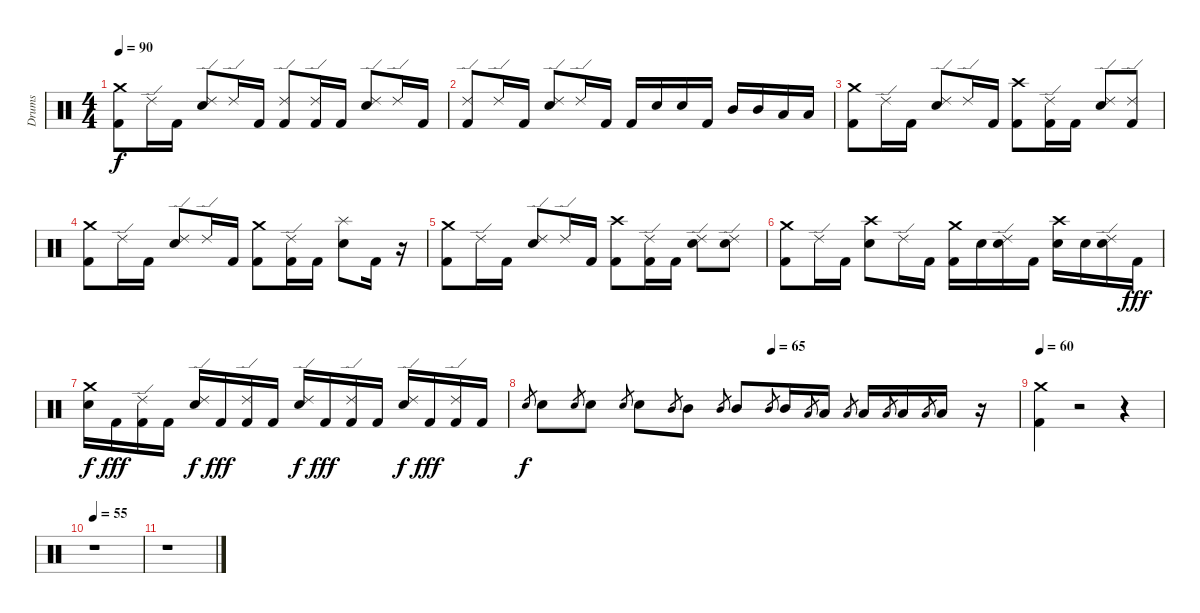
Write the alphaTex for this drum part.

\track ("Drums" "Drums") {instrument percussion}
\staff {score}
\articulation defaults
\ts (4 4)
\tempo 90
\clef neutral
\ks c
("Crash medium (hit)" "Kick (hit) 2").8{dy f} "Ride (edge) 2".16 "Kick (hit) 2".16 ("Ride (edge) 2" "Electric Snare (hit)").8 "Ride (edge) 2".16 "Kick (hit) 2".16 ("Ride (edge) 2" "Kick (hit) 2").8 ("Ride (edge) 2" "Kick (hit) 2").16 "Kick (hit) 2".16 ("Ride (edge) 2" "Electric Snare (hit)").8 "Ride (edge) 2".16 "Kick (hit) 2".16 |
("Ride (edge) 2" "Kick (hit) 2").8 "Ride (edge) 2".16 "Kick (hit) 2".16 ("Ride (edge) 2" "Electric Snare (hit)").8 "Ride (edge) 2".16 "Kick (hit) 2".16 "Kick (hit) 2".16 "Electric Snare (hit)".16 "Electric Snare (hit)".16 "Kick (hit) 2".16 "Mid Tom (hit)".16 "Mid Tom (hit)".16 "Low Tom (hit)".16 "Low Tom (hit)".16 |
("Crash medium (hit)" "Kick (hit) 2").8 "Ride (edge) 2".16 "Kick (hit) 2".16 ("Ride (edge) 2" "Electric Snare (hit)").8 "Ride (edge) 2".16 "Kick (hit) 2".16 ("Crash high (hit)" "Kick (hit) 2").8 ("Ride (edge) 2" "Kick (hit) 2").16 "Kick (hit) 2".16 ("Ride (edge) 2" "Electric Snare (hit)").8 ("Ride (edge) 2" "Kick (hit) 2").8 |
("Crash medium (hit)" "Kick (hit) 2").8 "Ride (edge) 2".16 "Kick (hit) 2".16 ("Ride (edge) 2" "Electric Snare (hit)").8 "Ride (edge) 2".16 "Kick (hit) 2".16 ("Crash medium (hit)" "Kick (hit) 2").8 ("Ride (edge) 2" "Kick (hit) 2").16 "Kick (hit) 2".16 ("Splash (hit)" "Electric Snare (hit)").8 "Kick (hit) 2".16 r.16 |
("Crash medium (hit)" "Kick (hit) 2").8 "Ride (edge) 2".16 "Kick (hit) 2".16 ("Ride (edge) 2" "Electric Snare (hit)").8 "Ride (edge) 2".16 "Kick (hit) 2".16 ("Crash high (hit)" "Kick (hit) 2").8 ("Ride (edge) 2" "Kick (hit) 2").16 "Kick (hit) 2".16 ("Ride (edge) 2" "Electric Snare (hit)").8 ("Ride (edge) 2" "Electric Snare (hit)").8 |
("Crash medium (hit)" "Kick (hit) 2").8 "Ride (edge) 2".16 "Kick (hit) 2".16 ("Crash high (hit)" "Electric Snare (hit)").8 "Ride (edge) 2".16 "Kick (hit) 2".16 ("Crash medium (hit)" "Kick (hit) 2").16 "Electric Snare (hit)".16 ("Ride (edge) 2" "Electric Snare (hit)").16 "Kick (hit) 2".16 ("Crash high (hit)" "Electric Snare (hit)").16 "Electric Snare (hit)".16 ("Ride (edge) 2" "Electric Snare (hit)").16 "Kick (hit) 2".16{dy fff} |
("Crash medium (hit)" "Electric Snare (hit)").16{dy f} "Kick (hit) 2".16{dy fff} ("Ride (edge) 2" "Kick (hit) 2").16 "Kick (hit) 2".16 ("Ride (edge) 2" "Electric Snare (hit)").16{dy f} "Kick (hit) 2".16{dy fff} ("Ride (edge) 2" "Kick (hit) 2").16 "Kick (hit) 2".16 ("Ride (edge) 2" "Electric Snare (hit)").16{dy f} "Kick (hit) 2".16{dy fff} ("Ride (edge) 2" "Kick (hit) 2").16 "Kick (hit) 2".16 ("Ride (edge) 2" "Electric Snare (hit)").16{dy f} "Kick (hit) 2".16{dy fff} ("Ride (edge) 2" "Kick (hit) 2").16 "Kick (hit) 2".16 |
\tempo (65 0.5)
"Electric Snare (hit)".8{gr dy f} "Electric Snare (hit)".8 "Electric Snare (hit)".8{gr} "Electric Snare (hit)".8 "Electric Snare (hit)".8{gr} "Electric Snare (hit)".8 "Mid Tom (hit)".8{gr} "Mid Tom (hit)".8 "Mid Tom (hit)".8{gr} "Mid Tom (hit)".8 "Mid Tom (hit)".8{gr} "Mid Tom (hit)".16 "Low Tom (hit)".8{gr} "Low Tom (hit)".16 "Low Tom (hit)".8{gr} "Low Tom (hit)".16 "Low Tom (hit)".8{gr} "Low Tom (hit)".16 "Low Tom (hit)".8{gr} "Low Tom (hit)".16 r.16 |
\tempo 60
("Crash medium (hit)" "Kick (hit) 2").4 r.2 r.4 |
\tempo 55
r.1 |
r.1
